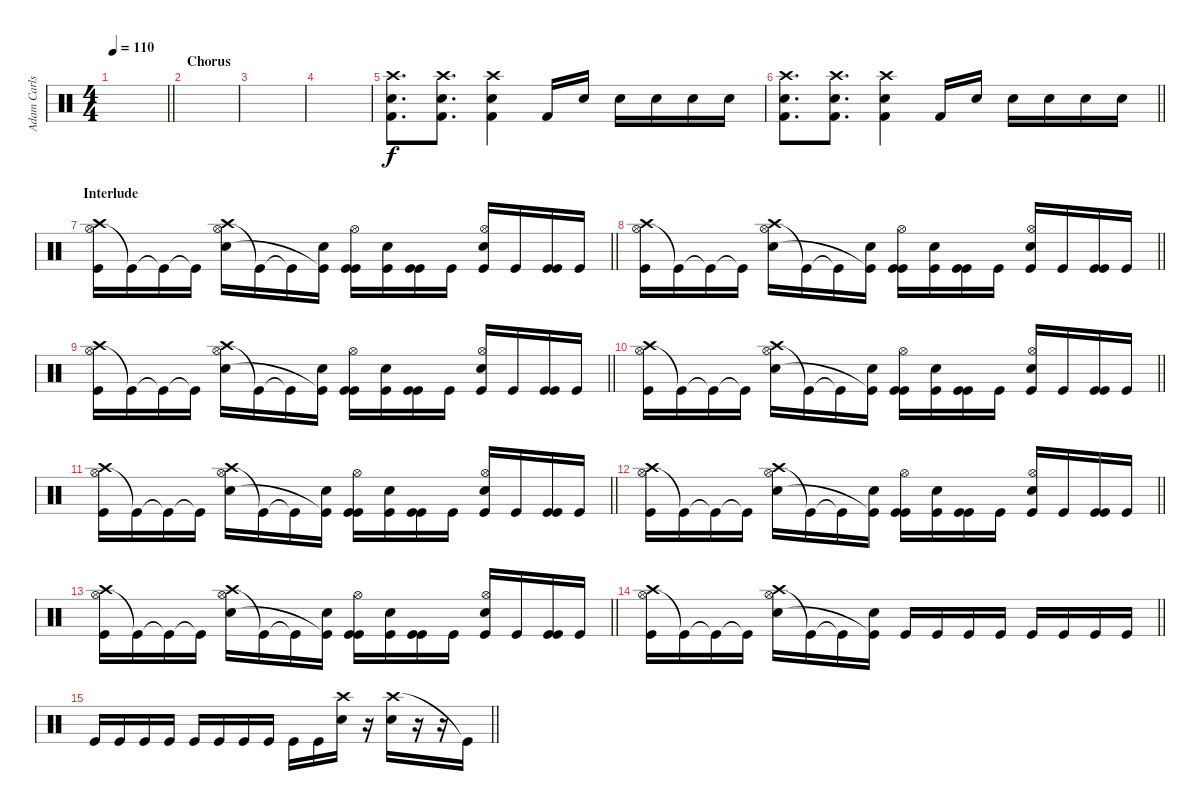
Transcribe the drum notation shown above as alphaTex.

\track ("Adam Carlson(Natural Drums)" "Adam Carls") {instrument percussion}
\staff {score}
\articulation defaults
\ts (4 4)
\tempo 110
\clef neutral
\barLineRight lightlight
\ks c
|
\section ("" "Chorus")
|
|
|
("Crash high (hit)" "Kick (hit) 2" "Electric Snare (hit)").8{d volume 13} ("Crash high (hit)" "Kick (hit) 2" "Electric Snare (hit)").8{d} ("Crash high (hit)" "Kick (hit) 2" "Electric Snare (hit)").4 "Kick (hit) 2".16 "Electric Snare (hit)".16 "Electric Snare (hit)".16 "Electric Snare (hit)".16 "Electric Snare (hit)".16 "Electric Snare (hit)".16 |
\barLineRight lightlight
("Crash high (hit)" "Kick (hit) 2" "Electric Snare (hit)").8{d} ("Crash high (hit)" "Kick (hit) 2" "Electric Snare (hit)").8{d} ("Crash high (hit)" "Kick (hit) 2" "Electric Snare (hit)").4 "Kick (hit) 2".16 "Electric Snare (hit)".16 "Electric Snare (hit)".16 "Electric Snare (hit)".16 "Electric Snare (hit)".16 "Electric Snare (hit)".16 |
\section ("" "Interlude")
\barLineRight lightlight
("Hi-Hat (open)" "Kick (hit)" "Crash high (hit)").16 "Kick (hit)"{t}.16 "Kick (hit)"{t}.16 "Kick (hit)"{t}.16 ("Hi-Hat (open)" "Electric Snare (hit)" "Crash high (hit)").16 "Kick (hit)"{t}.16 "Kick (hit)"{t}.16 ("Electric Snare (hit)" "Kick (hit)"{t}).16 ("Hi-Hat (open)" "Kick (hit)" "Kick (hit)").16 ("Electric Snare (hit)" "Kick (hit)").16 ("Kick (hit)" "Kick (hit)").16 "Kick (hit)".16 ("Hi-Hat (open)" "Electric Snare (hit)" "Kick (hit)").16 "Kick (hit)".16 ("Kick (hit)" "Kick (hit)").16 "Kick (hit)".16 |
\barLineRight lightlight
("Hi-Hat (open)" "Kick (hit)" "Crash high (hit)").16 "Kick (hit)"{t}.16 "Kick (hit)"{t}.16 "Kick (hit)"{t}.16 ("Hi-Hat (open)" "Electric Snare (hit)" "Crash high (hit)").16 "Kick (hit)"{t}.16 "Kick (hit)"{t}.16 ("Electric Snare (hit)" "Kick (hit)"{t}).16 ("Hi-Hat (open)" "Kick (hit)" "Kick (hit)").16 ("Electric Snare (hit)" "Kick (hit)").16 ("Kick (hit)" "Kick (hit)").16 "Kick (hit)".16 ("Hi-Hat (open)" "Electric Snare (hit)" "Kick (hit)").16 "Kick (hit)".16 ("Kick (hit)" "Kick (hit)").16 "Kick (hit)".16 |
\barLineRight lightlight
("Hi-Hat (open)" "Kick (hit)" "Crash high (hit)").16 "Kick (hit)"{t}.16 "Kick (hit)"{t}.16 "Kick (hit)"{t}.16 ("Hi-Hat (open)" "Electric Snare (hit)" "Crash high (hit)").16 "Kick (hit)"{t}.16 "Kick (hit)"{t}.16 ("Electric Snare (hit)" "Kick (hit)"{t}).16 ("Hi-Hat (open)" "Kick (hit)" "Kick (hit)").16 ("Electric Snare (hit)" "Kick (hit)").16 ("Kick (hit)" "Kick (hit)").16 "Kick (hit)".16 ("Hi-Hat (open)" "Electric Snare (hit)" "Kick (hit)").16 "Kick (hit)".16 ("Kick (hit)" "Kick (hit)").16 "Kick (hit)".16 |
\barLineRight lightlight
("Hi-Hat (open)" "Kick (hit)" "Crash high (hit)").16 "Kick (hit)"{t}.16 "Kick (hit)"{t}.16 "Kick (hit)"{t}.16 ("Hi-Hat (open)" "Electric Snare (hit)" "Crash high (hit)").16 "Kick (hit)"{t}.16 "Kick (hit)"{t}.16 ("Electric Snare (hit)" "Kick (hit)"{t}).16 ("Hi-Hat (open)" "Kick (hit)" "Kick (hit)").16 ("Electric Snare (hit)" "Kick (hit)").16 ("Kick (hit)" "Kick (hit)").16 "Kick (hit)".16 ("Hi-Hat (open)" "Electric Snare (hit)" "Kick (hit)").16 "Kick (hit)".16 ("Kick (hit)" "Kick (hit)").16 "Kick (hit)".16 |
\barLineRight lightlight
("Hi-Hat (open)" "Kick (hit)" "Crash high (hit)").16 "Kick (hit)"{t}.16 "Kick (hit)"{t}.16 "Kick (hit)"{t}.16 ("Hi-Hat (open)" "Electric Snare (hit)" "Crash high (hit)").16 "Kick (hit)"{t}.16 "Kick (hit)"{t}.16 ("Electric Snare (hit)" "Kick (hit)"{t}).16 ("Hi-Hat (open)" "Kick (hit)" "Kick (hit)").16 ("Electric Snare (hit)" "Kick (hit)").16 ("Kick (hit)" "Kick (hit)").16 "Kick (hit)".16 ("Hi-Hat (open)" "Electric Snare (hit)" "Kick (hit)").16 "Kick (hit)".16 ("Kick (hit)" "Kick (hit)").16 "Kick (hit)".16 |
\barLineRight lightlight
("Hi-Hat (open)" "Kick (hit)" "Crash high (hit)").16 "Kick (hit)"{t}.16 "Kick (hit)"{t}.16 "Kick (hit)"{t}.16 ("Hi-Hat (open)" "Electric Snare (hit)" "Crash high (hit)").16 "Kick (hit)"{t}.16 "Kick (hit)"{t}.16 ("Electric Snare (hit)" "Kick (hit)"{t}).16 ("Hi-Hat (open)" "Kick (hit)" "Kick (hit)").16 ("Electric Snare (hit)" "Kick (hit)").16 ("Kick (hit)" "Kick (hit)").16 "Kick (hit)".16 ("Hi-Hat (open)" "Electric Snare (hit)" "Kick (hit)").16 "Kick (hit)".16 ("Kick (hit)" "Kick (hit)").16 "Kick (hit)".16 |
\barLineRight lightlight
("Hi-Hat (open)" "Kick (hit)" "Crash high (hit)").16 "Kick (hit)"{t}.16 "Kick (hit)"{t}.16 "Kick (hit)"{t}.16 ("Hi-Hat (open)" "Electric Snare (hit)" "Crash high (hit)").16 "Kick (hit)"{t}.16 "Kick (hit)"{t}.16 ("Electric Snare (hit)" "Kick (hit)"{t}).16 ("Hi-Hat (open)" "Kick (hit)" "Kick (hit)").16 ("Electric Snare (hit)" "Kick (hit)").16 ("Kick (hit)" "Kick (hit)").16 "Kick (hit)".16 ("Hi-Hat (open)" "Electric Snare (hit)" "Kick (hit)").16 "Kick (hit)".16 ("Kick (hit)" "Kick (hit)").16 "Kick (hit)".16 |
\barLineRight lightlight
("Hi-Hat (open)" "Kick (hit)" "Crash high (hit)").16 "Kick (hit)"{t}.16 "Kick (hit)"{t}.16 "Kick (hit)"{t}.16 ("Hi-Hat (open)" "Electric Snare (hit)" "Crash high (hit)").16 "Kick (hit)"{t}.16 "Kick (hit)"{t}.16 ("Electric Snare (hit)" "Kick (hit)"{t}).16 "Kick (hit)".16 "Kick (hit)".16 "Kick (hit)".16 "Kick (hit)".16 "Kick (hit)".16 "Kick (hit)".16 "Kick (hit)".16 "Kick (hit)".16 |
\barLineRight lightlight "Kick (hit)".16 "Kick (hit)".16 "Kick (hit)".16 "Kick (hit)".16 "Kick (hit)".16 "Kick (hit)".16 "Kick (hit)".16 "Kick (hit)".16 "Kick (hit)".16 "Kick (hit)".16
("Crash high (hit)" "Electric Snare (hit)").16 r.16 ("Crash high (hit)" "Electric Snare (hit)").16 r.16 r.16 "Kick (hit)"{t}.16
